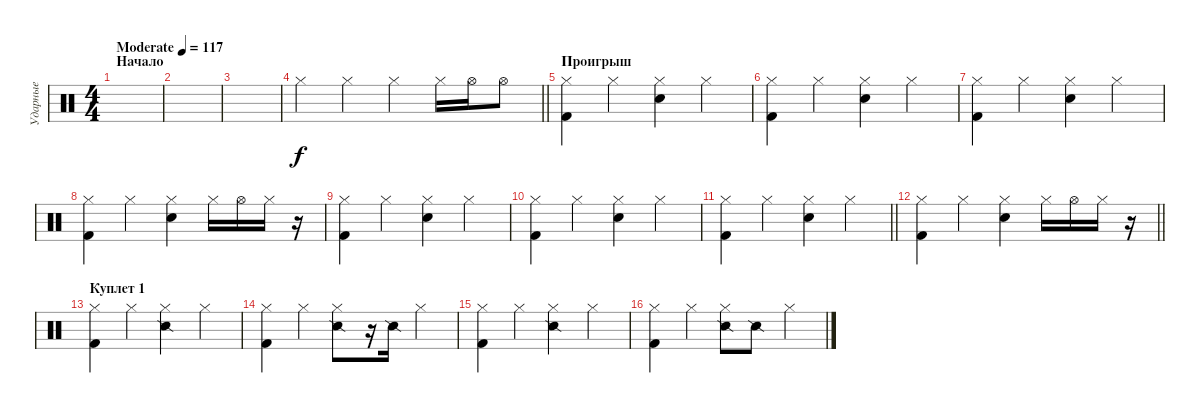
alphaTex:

\track ("Ударные" "Ударные") {instrument percussion}
\staff {score}
\articulation defaults
\ts (4 4)
\section ("" "Начало")
\tempo (117 "Moderate")
\clef neutral
\ks c
|
|
|
\barLineRight lightlight "Hi-Hat (closed)".4 "Hi-Hat (closed)".4 "Hi-Hat (closed)".4 "Hi-Hat (closed)".16 "Hi-Hat (open)".16 "Hi-Hat (open)".8
|
\section ("" "Проигрыш")
("Kick (hit) 2" "Hi-Hat (closed)").4 "Hi-Hat (closed)".4 ("Electric Snare (hit)" "Hi-Hat (closed)").4 "Hi-Hat (closed)".4 |
("Kick (hit) 2" "Hi-Hat (closed)").4 "Hi-Hat (closed)".4 ("Electric Snare (hit)" "Hi-Hat (closed)").4 "Hi-Hat (closed)".4 |
("Kick (hit) 2" "Hi-Hat (closed)").4 "Hi-Hat (closed)".4 ("Electric Snare (hit)" "Hi-Hat (closed)").4 "Hi-Hat (closed)".4 |
("Kick (hit) 2" "Hi-Hat (closed)").4 "Hi-Hat (closed)".4 ("Electric Snare (hit)" "Hi-Hat (closed)").4 "Hi-Hat (closed)".16 "Hi-Hat (open)".16 "Hi-Hat (closed)".16 r.16 |
("Kick (hit) 2" "Hi-Hat (closed)").4 "Hi-Hat (closed)".4 ("Electric Snare (hit)" "Hi-Hat (closed)").4 "Hi-Hat (closed)".4 |
("Kick (hit) 2" "Hi-Hat (closed)").4 "Hi-Hat (closed)".4 ("Electric Snare (hit)" "Hi-Hat (closed)").4 "Hi-Hat (closed)".4 |
\barLineRight lightlight
("Kick (hit) 2" "Hi-Hat (closed)").4 "Hi-Hat (closed)".4 ("Electric Snare (hit)" "Hi-Hat (closed)").4 "Hi-Hat (closed)".4 |
\section ("" "")
\barLineRight lightlight
("Kick (hit) 2" "Hi-Hat (closed)").4 "Hi-Hat (closed)".4 ("Electric Snare (hit)" "Hi-Hat (closed)").4 "Hi-Hat (closed)".16 "Hi-Hat (open)".16 "Hi-Hat (closed)".16 r.16 |
\section ("" "Куплет 1")
("Kick (hit) 2" "Hi-Hat (closed)").4 "Hi-Hat (closed)".4 ("Snare (side stick) 2" "Hi-Hat (closed)").4 "Hi-Hat (closed)".4 |
("Kick (hit) 2" "Hi-Hat (closed)").4 "Hi-Hat (closed)".4 ("Snare (side stick) 2" "Hi-Hat (closed)").8 r.16 "Snare (side stick) 2".16 "Hi-Hat (closed)".4 |
("Kick (hit) 2" "Hi-Hat (closed)").4 "Hi-Hat (closed)".4 ("Snare (side stick) 2" "Hi-Hat (closed)").4 "Hi-Hat (closed)".4 |
("Kick (hit) 2" "Hi-Hat (closed)").4 "Hi-Hat (closed)".4 ("Snare (side stick) 2" "Hi-Hat (closed)").8 "Snare (side stick) 2".8 "Hi-Hat (closed)".4
